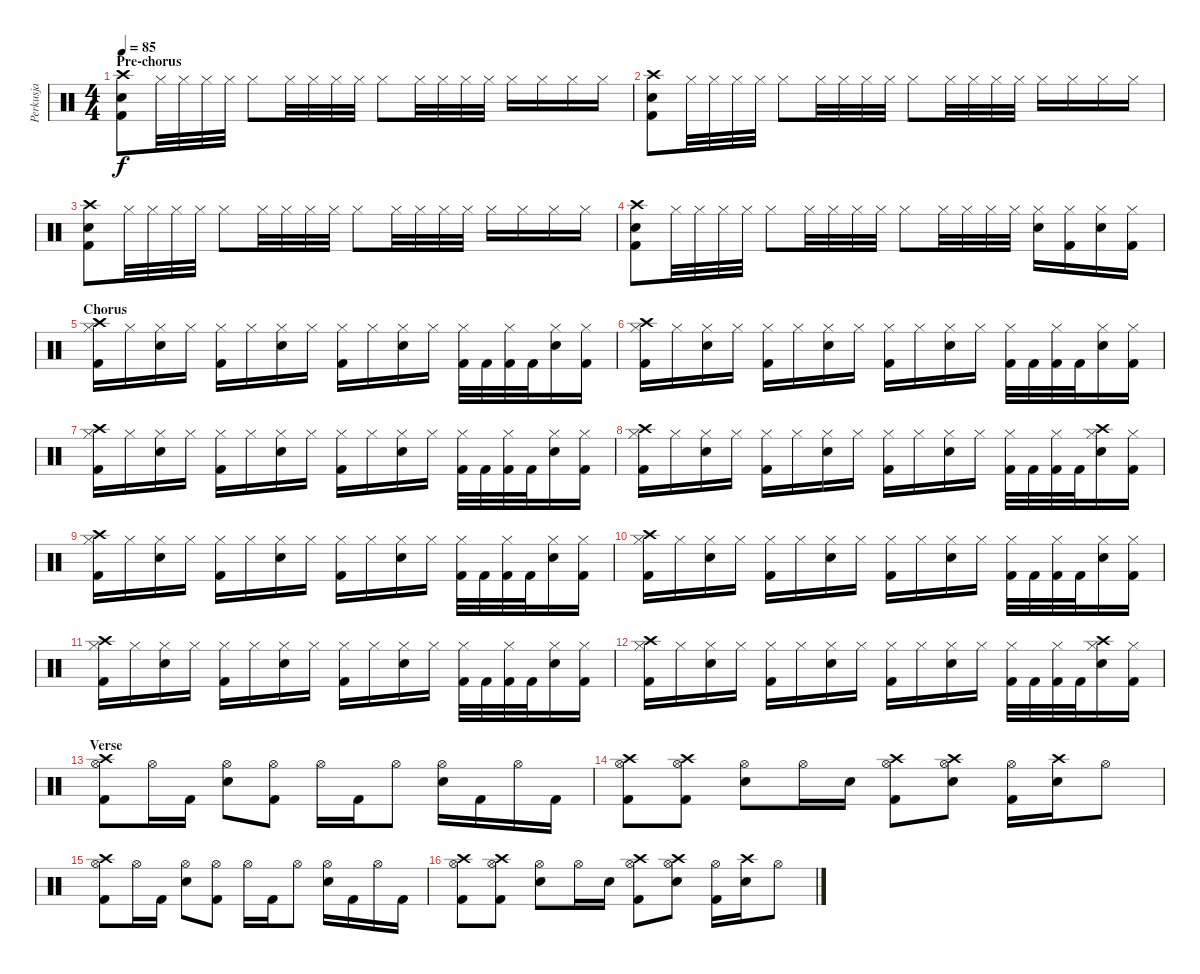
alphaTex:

\track ("Perkusja" "Perkusja") {instrument percussion}
\staff {score}
\articulation defaults
\ts (4 4)
\section ("" "Pre-chorus")
\tempo 85
\clef neutral
\ks c
("Crash high (hit)" "Kick (hit) 2" "Snare (hit) 2").8{dy f} "Hi-Hat (closed)".32 "Hi-Hat (closed)".32 "Hi-Hat (closed)".32 "Hi-Hat (closed)".32 "Hi-Hat (closed)".8 "Hi-Hat (closed)".32 "Hi-Hat (closed)".32 "Hi-Hat (closed)".32 "Hi-Hat (closed)".32 "Hi-Hat (closed)".8 "Hi-Hat (closed)".32 "Hi-Hat (closed)".32 "Hi-Hat (closed)".32 "Hi-Hat (closed)".32 "Hi-Hat (closed)".16 "Hi-Hat (closed)".16 "Hi-Hat (closed)".16 "Hi-Hat (closed)".16 |
("Crash high (hit)" "Kick (hit) 2" "Snare (hit) 2").8 "Hi-Hat (closed)".32 "Hi-Hat (closed)".32 "Hi-Hat (closed)".32 "Hi-Hat (closed)".32 "Hi-Hat (closed)".8 "Hi-Hat (closed)".32 "Hi-Hat (closed)".32 "Hi-Hat (closed)".32 "Hi-Hat (closed)".32 "Hi-Hat (closed)".8 "Hi-Hat (closed)".32 "Hi-Hat (closed)".32 "Hi-Hat (closed)".32 "Hi-Hat (closed)".32 "Hi-Hat (closed)".16 "Hi-Hat (closed)".16 "Hi-Hat (closed)".16 "Hi-Hat (closed)".16 |
("Crash high (hit)" "Kick (hit) 2" "Snare (hit) 2").8 "Hi-Hat (closed)".32 "Hi-Hat (closed)".32 "Hi-Hat (closed)".32 "Hi-Hat (closed)".32 "Hi-Hat (closed)".8 "Hi-Hat (closed)".32 "Hi-Hat (closed)".32 "Hi-Hat (closed)".32 "Hi-Hat (closed)".32 "Hi-Hat (closed)".8 "Hi-Hat (closed)".32 "Hi-Hat (closed)".32 "Hi-Hat (closed)".32 "Hi-Hat (closed)".32 "Hi-Hat (closed)".16 "Hi-Hat (closed)".16 "Hi-Hat (closed)".16 "Hi-Hat (closed)".16 |
("Crash high (hit)" "Kick (hit) 2" "Snare (hit) 2").8 "Hi-Hat (closed)".32 "Hi-Hat (closed)".32 "Hi-Hat (closed)".32 "Hi-Hat (closed)".32 "Hi-Hat (closed)".8 "Hi-Hat (closed)".32 "Hi-Hat (closed)".32 "Hi-Hat (closed)".32 "Hi-Hat (closed)".32 "Hi-Hat (closed)".8 "Hi-Hat (closed)".32 "Hi-Hat (closed)".32 "Hi-Hat (closed)".32 "Hi-Hat (closed)".32 ("Hi-Hat (closed)" "Snare (hit) 2").16 ("Hi-Hat (closed)" "Kick (hit) 2").16 ("Hi-Hat (closed)" "Snare (hit) 2").16 ("Hi-Hat (closed)" "Kick (hit) 2").16 |
\section ("" "Chorus")
("Hi-Hat (closed)" "Kick (hit) 2" "Crash high (hit)").16 "Hi-Hat (closed)".16 ("Hi-Hat (closed)" "Snare (hit) 2").16 "Hi-Hat (closed)".16 ("Hi-Hat (closed)" "Kick (hit) 2").16 "Hi-Hat (closed)".16 ("Hi-Hat (closed)" "Snare (hit) 2").16 "Hi-Hat (closed)".16 ("Hi-Hat (closed)" "Kick (hit) 2").16 "Hi-Hat (closed)".16 ("Hi-Hat (closed)" "Snare (hit) 2").16 "Hi-Hat (closed)".16 ("Hi-Hat (closed)" "Kick (hit) 2").32 "Kick (hit) 2".32 ("Hi-Hat (closed)" "Kick (hit) 2").32 "Kick (hit) 2".32 ("Hi-Hat (closed)" "Snare (hit) 2").16 ("Hi-Hat (closed)" "Kick (hit) 2").16 |
("Hi-Hat (closed)" "Kick (hit) 2" "Crash high (hit)").16 "Hi-Hat (closed)".16 ("Hi-Hat (closed)" "Snare (hit) 2").16 "Hi-Hat (closed)".16 ("Hi-Hat (closed)" "Kick (hit) 2").16 "Hi-Hat (closed)".16 ("Hi-Hat (closed)" "Snare (hit) 2").16 "Hi-Hat (closed)".16 ("Hi-Hat (closed)" "Kick (hit) 2").16 "Hi-Hat (closed)".16 ("Hi-Hat (closed)" "Snare (hit) 2").16 "Hi-Hat (closed)".16 ("Hi-Hat (closed)" "Kick (hit) 2").32 "Kick (hit) 2".32 ("Hi-Hat (closed)" "Kick (hit) 2").32 "Kick (hit) 2".32 ("Hi-Hat (closed)" "Snare (hit) 2").16 ("Hi-Hat (closed)" "Kick (hit) 2").16 |
("Hi-Hat (closed)" "Kick (hit) 2" "Crash high (hit)").16 "Hi-Hat (closed)".16 ("Hi-Hat (closed)" "Snare (hit) 2").16 "Hi-Hat (closed)".16 ("Hi-Hat (closed)" "Kick (hit) 2").16 "Hi-Hat (closed)".16 ("Hi-Hat (closed)" "Snare (hit) 2").16 "Hi-Hat (closed)".16 ("Hi-Hat (closed)" "Kick (hit) 2").16 "Hi-Hat (closed)".16 ("Hi-Hat (closed)" "Snare (hit) 2").16 "Hi-Hat (closed)".16 ("Hi-Hat (closed)" "Kick (hit) 2").32 "Kick (hit) 2".32 ("Hi-Hat (closed)" "Kick (hit) 2").32 "Kick (hit) 2".32 ("Hi-Hat (closed)" "Snare (hit) 2").16 ("Hi-Hat (closed)" "Kick (hit) 2").16 |
("Hi-Hat (closed)" "Kick (hit) 2" "Crash high (hit)").16 "Hi-Hat (closed)".16 ("Hi-Hat (closed)" "Snare (hit) 2").16 "Hi-Hat (closed)".16 ("Hi-Hat (closed)" "Kick (hit) 2").16 "Hi-Hat (closed)".16 ("Hi-Hat (closed)" "Snare (hit) 2").16 "Hi-Hat (closed)".16 ("Hi-Hat (closed)" "Kick (hit) 2").16 "Hi-Hat (closed)".16 ("Hi-Hat (closed)" "Snare (hit) 2").16 "Hi-Hat (closed)".16 ("Hi-Hat (closed)" "Kick (hit) 2").32 "Kick (hit) 2".32 ("Hi-Hat (closed)" "Kick (hit) 2").32 "Kick (hit) 2".32 ("Hi-Hat (closed)" "Snare (hit) 2" "Crash high (hit)").16 ("Hi-Hat (closed)" "Kick (hit) 2").16 |
("Hi-Hat (closed)" "Kick (hit) 2" "Crash high (hit)").16 "Hi-Hat (closed)".16 ("Hi-Hat (closed)" "Snare (hit) 2").16 "Hi-Hat (closed)".16 ("Hi-Hat (closed)" "Kick (hit) 2").16 "Hi-Hat (closed)".16 ("Hi-Hat (closed)" "Snare (hit) 2").16 "Hi-Hat (closed)".16 ("Hi-Hat (closed)" "Kick (hit) 2").16 "Hi-Hat (closed)".16 ("Hi-Hat (closed)" "Snare (hit) 2").16 "Hi-Hat (closed)".16 ("Hi-Hat (closed)" "Kick (hit) 2").32 "Kick (hit) 2".32 ("Hi-Hat (closed)" "Kick (hit) 2").32 "Kick (hit) 2".32 ("Hi-Hat (closed)" "Snare (hit) 2").16 ("Hi-Hat (closed)" "Kick (hit) 2").16 |
("Hi-Hat (closed)" "Kick (hit) 2" "Crash high (hit)").16 "Hi-Hat (closed)".16 ("Hi-Hat (closed)" "Snare (hit) 2").16 "Hi-Hat (closed)".16 ("Hi-Hat (closed)" "Kick (hit) 2").16 "Hi-Hat (closed)".16 ("Hi-Hat (closed)" "Snare (hit) 2").16 "Hi-Hat (closed)".16 ("Hi-Hat (closed)" "Kick (hit) 2").16 "Hi-Hat (closed)".16 ("Hi-Hat (closed)" "Snare (hit) 2").16 "Hi-Hat (closed)".16 ("Hi-Hat (closed)" "Kick (hit) 2").32 "Kick (hit) 2".32 ("Hi-Hat (closed)" "Kick (hit) 2").32 "Kick (hit) 2".32 ("Hi-Hat (closed)" "Snare (hit) 2").16 ("Hi-Hat (closed)" "Kick (hit) 2").16 |
("Hi-Hat (closed)" "Kick (hit) 2" "Crash high (hit)").16 "Hi-Hat (closed)".16 ("Hi-Hat (closed)" "Snare (hit) 2").16 "Hi-Hat (closed)".16 ("Hi-Hat (closed)" "Kick (hit) 2").16 "Hi-Hat (closed)".16 ("Hi-Hat (closed)" "Snare (hit) 2").16 "Hi-Hat (closed)".16 ("Hi-Hat (closed)" "Kick (hit) 2").16 "Hi-Hat (closed)".16 ("Hi-Hat (closed)" "Snare (hit) 2").16 "Hi-Hat (closed)".16 ("Hi-Hat (closed)" "Kick (hit) 2").32 "Kick (hit) 2".32 ("Hi-Hat (closed)" "Kick (hit) 2").32 "Kick (hit) 2".32 ("Hi-Hat (closed)" "Snare (hit) 2").16 ("Hi-Hat (closed)" "Kick (hit) 2").16 |
("Hi-Hat (closed)" "Kick (hit) 2" "Crash high (hit)").16 "Hi-Hat (closed)".16 ("Hi-Hat (closed)" "Snare (hit) 2").16 "Hi-Hat (closed)".16 ("Hi-Hat (closed)" "Kick (hit) 2").16 "Hi-Hat (closed)".16 ("Hi-Hat (closed)" "Snare (hit) 2").16 "Hi-Hat (closed)".16 ("Hi-Hat (closed)" "Kick (hit) 2").16 "Hi-Hat (closed)".16 ("Hi-Hat (closed)" "Snare (hit) 2").16 "Hi-Hat (closed)".16 ("Hi-Hat (closed)" "Kick (hit) 2").32 "Kick (hit) 2".32 ("Hi-Hat (closed)" "Kick (hit) 2").32 "Kick (hit) 2".32 ("Hi-Hat (closed)" "Snare (hit) 2" "Crash high (hit)").16 ("Hi-Hat (closed)" "Kick (hit) 2").16 |
\section ("" "Verse")
("Hi-Hat (open)" "Kick (hit) 2" "Crash high (hit)").8 "Hi-Hat (open)".16 "Kick (hit) 2".16 ("Hi-Hat (open)" "Snare (hit) 2").8 ("Hi-Hat (open)" "Kick (hit) 2").8 "Hi-Hat (open)".16 "Kick (hit) 2".16 "Hi-Hat (open)".8 ("Hi-Hat (open)" "Snare (hit) 2").16 "Kick (hit) 2".16 "Hi-Hat (open)".16 "Kick (hit) 2".16 |
("Hi-Hat (open)" "Kick (hit) 2" "Crash high (hit)").8 ("Hi-Hat (open)" "Kick (hit) 2" "Crash high (hit)").8 ("Hi-Hat (open)" "Snare (hit) 2").8 "Hi-Hat (open)".16 "Snare (hit) 2".16 ("Hi-Hat (open)" "Kick (hit) 2" "Crash high (hit)").8 ("Hi-Hat (open)" "Snare (hit) 2" "Crash high (hit)").8 ("Hi-Hat (open)" "Kick (hit) 2").16 ("Snare (hit) 2" "Crash high (hit)").16 "Hi-Hat (open)".8 |
("Hi-Hat (open)" "Kick (hit) 2" "Crash high (hit)").8 "Hi-Hat (open)".16 "Kick (hit) 2".16 ("Hi-Hat (open)" "Snare (hit) 2").8 ("Hi-Hat (open)" "Kick (hit) 2").8 "Hi-Hat (open)".16 "Kick (hit) 2".16 "Hi-Hat (open)".8 ("Hi-Hat (open)" "Snare (hit) 2").16 "Kick (hit) 2".16 "Hi-Hat (open)".16 "Kick (hit) 2".16 |
("Hi-Hat (open)" "Kick (hit) 2" "Crash high (hit)").8 ("Hi-Hat (open)" "Kick (hit) 2" "Crash high (hit)").8 ("Hi-Hat (open)" "Snare (hit) 2").8 "Hi-Hat (open)".16 "Snare (hit) 2".16 ("Hi-Hat (open)" "Kick (hit) 2" "Crash high (hit)").8 ("Hi-Hat (open)" "Snare (hit) 2" "Crash high (hit)").8 ("Hi-Hat (open)" "Kick (hit) 2").16 ("Snare (hit) 2" "Crash high (hit)").16 "Hi-Hat (open)".8
